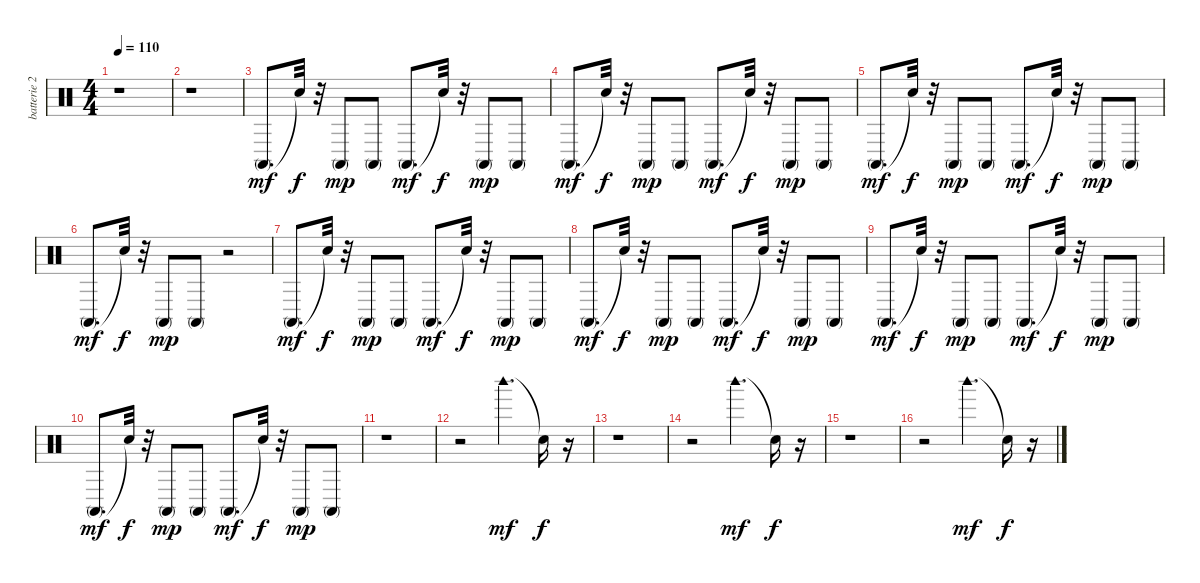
\track ("batterie 2" "batterie 2") {instrument percussion}
\staff {score}
\articulation defaults
\ts (4 4)
\tempo 110
\clef neutral
\ks c
r.1{dy f} |
r.1 |
"Conga high (mute)".8{d dy mf} "Snare (hit)"{t}.32{dy f} r.32 "Conga high (mute)".8{dy mp} "Conga high (mute)".8 "Conga high (mute)".8{d dy mf} "Snare (hit)"{t}.32{dy f} r.32 "Conga high (mute)".8{dy mp} "Conga high (mute)".8 |
"Conga high (mute)".8{d dy mf} "Snare (hit)"{t}.32{dy f} r.32 "Conga high (mute)".8{dy mp} "Conga high (mute)".8 "Conga high (mute)".8{d dy mf} "Snare (hit)"{t}.32{dy f} r.32 "Conga high (mute)".8{dy mp} "Conga high (mute)".8 |
"Conga high (mute)".8{d dy mf} "Snare (hit)"{t}.32{dy f} r.32 "Conga high (mute)".8{dy mp} "Conga high (mute)".8 "Conga high (mute)".8{d dy mf} "Snare (hit)"{t}.32{dy f} r.32 "Conga high (mute)".8{dy mp} "Conga high (mute)".8 |
"Conga high (mute)".8{d dy mf} "Snare (hit)"{t}.32{dy f} r.32 "Conga high (mute)".8{dy mp} "Conga high (mute)".8 r.2 |
"Conga high (mute)".8{d dy mf} "Snare (hit)"{t}.32{dy f} r.32 "Conga high (mute)".8{dy mp} "Conga high (mute)".8 "Conga high (mute)".8{d dy mf} "Snare (hit)"{t}.32{dy f} r.32 "Conga high (mute)".8{dy mp} "Conga high (mute)".8 |
"Conga high (mute)".8{d dy mf} "Snare (hit)"{t}.32{dy f} r.32 "Conga high (mute)".8{dy mp} "Conga high (mute)".8 "Conga high (mute)".8{d dy mf} "Snare (hit)"{t}.32{dy f} r.32 "Conga high (mute)".8{dy mp} "Conga high (mute)".8 |
"Conga high (mute)".8{d dy mf} "Snare (hit)"{t}.32{dy f} r.32 "Conga high (mute)".8{dy mp} "Conga high (mute)".8 "Conga high (mute)".8{d dy mf} "Snare (hit)"{t}.32{dy f} r.32 "Conga high (mute)".8{dy mp} "Conga high (mute)".8 |
"Conga high (mute)".8{d dy mf} "Snare (hit)"{t}.32{dy f} r.32 "Conga high (mute)".8{dy mp} "Conga high (mute)".8 "Conga high (mute)".8{d dy mf} "Snare (hit)"{t}.32{dy f} r.32 "Conga high (mute)".8{dy mp} "Conga high (mute)".8 |
r.1 |
r.2 "Woodblock high (hit)".4{d dy mf} "Snare (hit)"{t}.16{dy f} r.16 |
r.1 |
r.2 "Woodblock high (hit)".4{d dy mf} "Snare (hit)"{t}.16{dy f} r.16 |
r.1 |
r.2 "Woodblock high (hit)".4{d dy mf} "Snare (hit)"{t}.16{dy f} r.16
